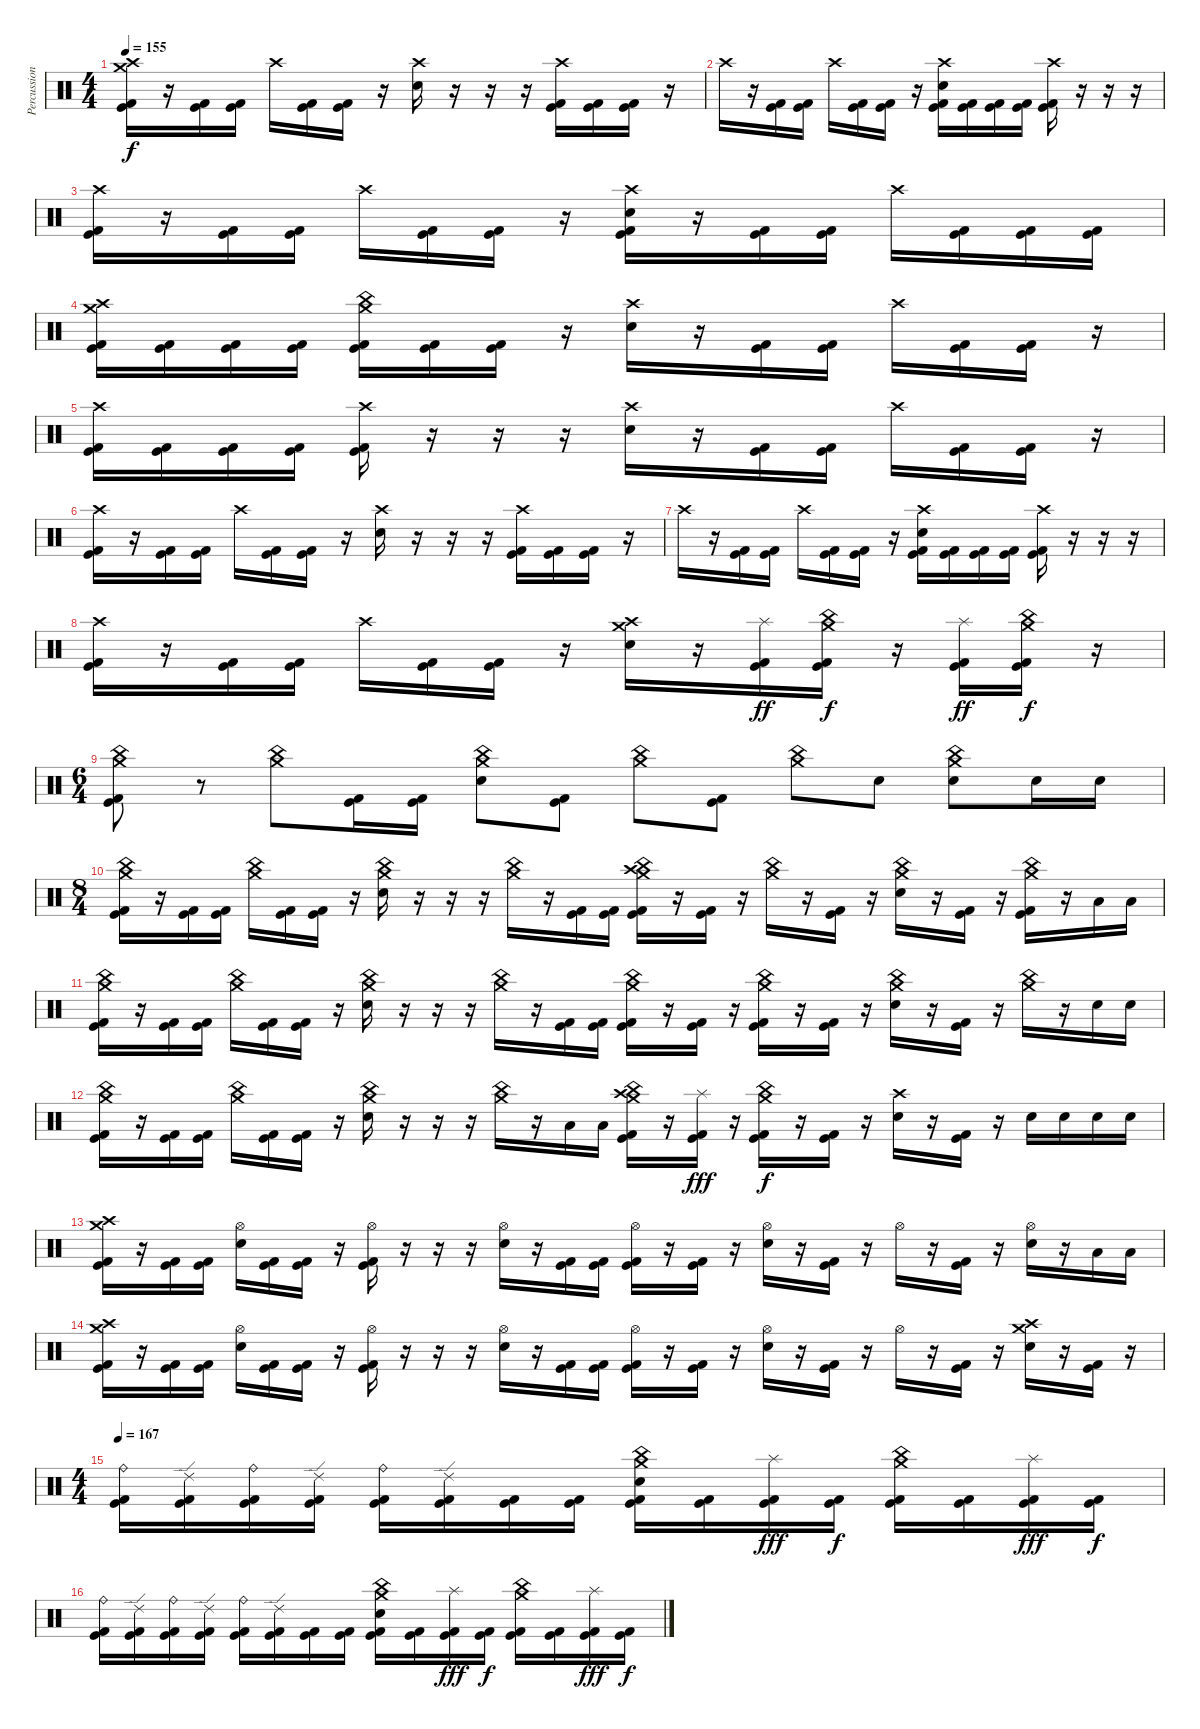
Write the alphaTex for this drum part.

\track ("Percussion" "Percussion") {instrument percussion}
\staff {score}
\articulation defaults
\ts (4 4)
\tempo 155
\clef neutral
\ks c
("Crash medium (hit)" "Crash high (hit)" "Kick (hit)" "Kick (hit) 2").16{dy f} r.16 ("Kick (hit)" "Kick (hit) 2").16 ("Kick (hit)" "Kick (hit) 2").16 "Crash high (hit)".16 ("Kick (hit)" "Kick (hit) 2").16 ("Kick (hit)" "Kick (hit) 2").16 r.16 ("Crash high (hit)" "Electric Snare (hit)").16 r.16 r.16 r.16 ("Crash high (hit)" "Kick (hit)" "Kick (hit) 2").16 ("Kick (hit)" "Kick (hit) 2").16 ("Kick (hit)" "Kick (hit) 2").16 r.16 |
"Crash high (hit)".16 r.16 ("Kick (hit)" "Kick (hit) 2").16 ("Kick (hit)" "Kick (hit) 2").16 "Crash high (hit)".16 ("Kick (hit)" "Kick (hit) 2").16 ("Kick (hit)" "Kick (hit) 2").16 r.16 ("Crash high (hit)" "Electric Snare (hit)" "Kick (hit)" "Kick (hit) 2").16 ("Kick (hit)" "Kick (hit) 2").16 ("Kick (hit)" "Kick (hit) 2").16 ("Kick (hit)" "Kick (hit) 2").16 ("Crash high (hit)" "Kick (hit)" "Kick (hit) 2").16 r.16 r.16 r.16 |
("Crash high (hit)" "Kick (hit)" "Kick (hit) 2").16 r.16 ("Kick (hit)" "Kick (hit) 2").16 ("Kick (hit)" "Kick (hit) 2").16 "Crash high (hit)".16 ("Kick (hit)" "Kick (hit) 2").16 ("Kick (hit)" "Kick (hit) 2").16 r.16 ("Crash high (hit)" "Electric Snare (hit)" "Kick (hit)" "Kick (hit) 2").16 r.16 ("Kick (hit)" "Kick (hit) 2").16 ("Kick (hit)" "Kick (hit) 2").16 "Crash high (hit)".16 ("Kick (hit)" "Kick (hit) 2").16 ("Kick (hit)" "Kick (hit) 2").16 ("Kick (hit)" "Kick (hit) 2").16 |
("Crash medium (hit)" "Crash high (hit)" "Kick (hit)" "Kick (hit) 2").16 ("Kick (hit)" "Kick (hit) 2").16 ("Kick (hit)" "Kick (hit) 2").16 ("Kick (hit)" "Kick (hit) 2").16 ("Crash medium (hit)" "China (hit)" "Kick (hit)" "Kick (hit) 2").16 ("Kick (hit)" "Kick (hit) 2").16 ("Kick (hit)" "Kick (hit) 2").16 r.16 ("Crash high (hit)" "Electric Snare (hit)").16 r.16 ("Kick (hit)" "Kick (hit) 2").16 ("Kick (hit)" "Kick (hit) 2").16 "Crash high (hit)".16 ("Kick (hit)" "Kick (hit) 2").16 ("Kick (hit)" "Kick (hit) 2").16 r.16 |
("Crash high (hit)" "Kick (hit)" "Kick (hit) 2").16 ("Kick (hit)" "Kick (hit) 2").16 ("Kick (hit)" "Kick (hit) 2").16 ("Kick (hit)" "Kick (hit) 2").16 ("Crash high (hit)" "Kick (hit)" "Kick (hit) 2").16 r.16 r.16 r.16 ("Crash high (hit)" "Electric Snare (hit)").16 r.16 ("Kick (hit)" "Kick (hit) 2").16 ("Kick (hit)" "Kick (hit) 2").16 "Crash high (hit)".16 ("Kick (hit)" "Kick (hit) 2").16 ("Kick (hit)" "Kick (hit) 2").16 r.16 |
("Crash high (hit)" "Kick (hit)" "Kick (hit) 2").16 r.16 ("Kick (hit)" "Kick (hit) 2").16 ("Kick (hit)" "Kick (hit) 2").16 "Crash high (hit)".16 ("Kick (hit)" "Kick (hit) 2").16 ("Kick (hit)" "Kick (hit) 2").16 r.16 ("Crash high (hit)" "Electric Snare (hit)").16 r.16 r.16 r.16 ("Crash high (hit)" "Kick (hit)" "Kick (hit) 2").16 ("Kick (hit)" "Kick (hit) 2").16 ("Kick (hit)" "Kick (hit) 2").16 r.16 |
"Crash high (hit)".16 r.16 ("Kick (hit)" "Kick (hit) 2").16 ("Kick (hit)" "Kick (hit) 2").16 "Crash high (hit)".16 ("Kick (hit)" "Kick (hit) 2").16 ("Kick (hit)" "Kick (hit) 2").16 r.16 ("Crash high (hit)" "Electric Snare (hit)" "Kick (hit)" "Kick (hit) 2").16 ("Kick (hit)" "Kick (hit) 2").16 ("Kick (hit)" "Kick (hit) 2").16 ("Kick (hit)" "Kick (hit) 2").16 ("Crash high (hit)" "Kick (hit)" "Kick (hit) 2").16 r.16 r.16 r.16 |
("Crash high (hit)" "Kick (hit)" "Kick (hit) 2").16 r.16 ("Kick (hit)" "Kick (hit) 2").16 ("Kick (hit)" "Kick (hit) 2").16 "Crash high (hit)".16 ("Kick (hit)" "Kick (hit) 2").16 ("Kick (hit)" "Kick (hit) 2").16 r.16 ("Crash medium (hit)" "Crash high (hit)" "Electric Snare (hit)").16 r.16 ("Splash (hit)" "Kick (hit)" "Kick (hit) 2").16{dy ff} ("Crash medium (hit)" "China (hit)" "Kick (hit)" "Kick (hit) 2").16{dy f} r.16 ("Splash (hit)" "Kick (hit)" "Kick (hit) 2").16{dy ff} ("Crash medium (hit)" "China (hit)" "Kick (hit)" "Kick (hit) 2").16{dy f} r.16 |
\ts (6 4)
("Crash medium (hit)" "China (hit)" "Kick (hit)" "Kick (hit) 2").8 r.8 ("Crash medium (hit)" "China (hit)").8 ("Kick (hit)" "Kick (hit) 2").16 ("Kick (hit)" "Kick (hit) 2").16 ("Crash medium (hit)" "China (hit)" "Electric Snare (hit)").8 ("Kick (hit)" "Kick (hit) 2").8 ("Crash medium (hit)" "China (hit)").8 ("Kick (hit)" "Kick (hit) 2").8 ("Crash medium (hit)" "China (hit)").8 "Electric Snare (hit)".8 ("Crash medium (hit)" "China (hit)" "Electric Snare (hit)").8 "Electric Snare (hit)".16 "Electric Snare (hit)".16 |
\ts (8 4)
("Crash medium (hit)" "China (hit)" "Kick (hit)" "Kick (hit) 2").16 r.16 ("Kick (hit)" "Kick (hit) 2").16 ("Kick (hit)" "Kick (hit) 2").16 ("Crash medium (hit)" "China (hit)").16 ("Kick (hit)" "Kick (hit) 2").16 ("Kick (hit)" "Kick (hit) 2").16 r.16 ("Crash medium (hit)" "China (hit)" "Electric Snare (hit)").16 r.16 r.16 r.16 ("Crash medium (hit)" "China (hit)").16 r.16 ("Kick (hit)" "Kick (hit) 2").16 ("Kick (hit)" "Kick (hit) 2").16 ("Crash medium (hit)" "China (hit)" "Crash high (hit)" "Kick (hit)" "Kick (hit) 2").16 r.16 ("Kick (hit)" "Kick (hit) 2").16 r.16 ("Crash medium (hit)" "China (hit)").16 r.16 ("Kick (hit)" "Kick (hit) 2").16 r.16 ("Crash medium (hit)" "China (hit)" "Electric Snare (hit)").16 r.16 ("Kick (hit)" "Kick (hit) 2").16 r.16 ("Crash medium (hit)" "China (hit)" "Kick (hit)" "Kick (hit) 2").16 r.16 "Low Tom (hit)".16 "Low Tom (hit)".16 |
("Crash medium (hit)" "China (hit)" "Kick (hit)" "Kick (hit) 2").16 r.16 ("Kick (hit)" "Kick (hit) 2").16 ("Kick (hit)" "Kick (hit) 2").16 ("Crash medium (hit)" "China (hit)").16 ("Kick (hit)" "Kick (hit) 2").16 ("Kick (hit)" "Kick (hit) 2").16 r.16 ("Crash medium (hit)" "China (hit)" "Electric Snare (hit)").16 r.16 r.16 r.16 ("Crash medium (hit)" "China (hit)").16 r.16 ("Kick (hit)" "Kick (hit) 2").16 ("Kick (hit)" "Kick (hit) 2").16 ("Crash medium (hit)" "China (hit)" "Kick (hit)" "Kick (hit) 2").16 r.16 ("Kick (hit)" "Kick (hit) 2").16 r.16 ("Crash medium (hit)" "China (hit)" "Kick (hit)" "Kick (hit) 2").16 r.16 ("Kick (hit)" "Kick (hit) 2").16 r.16 ("Crash medium (hit)" "China (hit)" "Electric Snare (hit)").16 r.16 ("Kick (hit)" "Kick (hit) 2").16 r.16 ("Crash medium (hit)" "China (hit)").16 r.16 "Electric Snare (hit)".16 "Electric Snare (hit)".16 |
("Crash medium (hit)" "China (hit)" "Kick (hit)" "Kick (hit) 2").16 r.16 ("Kick (hit)" "Kick (hit) 2").16 ("Kick (hit)" "Kick (hit) 2").16 ("Crash medium (hit)" "China (hit)").16 ("Kick (hit)" "Kick (hit) 2").16 ("Kick (hit)" "Kick (hit) 2").16 r.16 ("Crash medium (hit)" "China (hit)" "Electric Snare (hit)").16 r.16 r.16 r.16 ("Crash medium (hit)" "China (hit)").16 r.16 "Low Tom (hit)".16 "Low Tom (hit)".16 ("Crash medium (hit)" "China (hit)" "Crash high (hit)" "Kick (hit)" "Kick (hit) 2").16 r.16 ("Splash (hit)" "Kick (hit)" "Kick (hit) 2").16{dy fff} r.16 ("Crash medium (hit)" "China (hit)" "Kick (hit)" "Kick (hit) 2").16{dy f} r.16 ("Kick (hit)" "Kick (hit) 2").16 r.16 ("Crash high (hit)" "Electric Snare (hit)").16 r.16 ("Kick (hit)" "Kick (hit) 2").16 r.16 "Electric Snare (hit)".16 "Electric Snare (hit)".16 "Electric Snare (hit)".16 "Electric Snare (hit)".16 |
("Crash medium (hit)" "Crash high (hit)" "Kick (hit)" "Kick (hit) 2").16 r.16 ("Kick (hit)" "Kick (hit) 2").16 ("Kick (hit)" "Kick (hit) 2").16 ("Hi-Hat (open)" "Electric Snare (hit)").16 ("Kick (hit)" "Kick (hit) 2").16 ("Kick (hit)" "Kick (hit) 2").16 r.16 ("Hi-Hat (open)" "Kick (hit)" "Kick (hit) 2").16 r.16 r.16 r.16 ("Hi-Hat (open)" "Electric Snare (hit)").16 r.16 ("Kick (hit)" "Kick (hit) 2").16 ("Kick (hit)" "Kick (hit) 2").16 ("Hi-Hat (open)" "Kick (hit)" "Kick (hit) 2").16 r.16 ("Kick (hit)" "Kick (hit) 2").16 r.16 ("Hi-Hat (open)" "Electric Snare (hit)").16 r.16 ("Kick (hit)" "Kick (hit) 2").16 r.16 "Hi-Hat (open)".16 r.16 ("Kick (hit)" "Kick (hit) 2").16 r.16 ("Hi-Hat (open)" "Electric Snare (hit)").16 r.16 "Low Tom (hit)".16 "Low Tom (hit)".16 |
("Crash medium (hit)" "Crash high (hit)" "Kick (hit)" "Kick (hit) 2").16 r.16 ("Kick (hit)" "Kick (hit) 2").16 ("Kick (hit)" "Kick (hit) 2").16 ("Hi-Hat (open)" "Electric Snare (hit)").16 ("Kick (hit)" "Kick (hit) 2").16 ("Kick (hit)" "Kick (hit) 2").16 r.16 ("Hi-Hat (open)" "Kick (hit)" "Kick (hit) 2").16 r.16 r.16 r.16 ("Hi-Hat (open)" "Electric Snare (hit)").16 r.16 ("Kick (hit)" "Kick (hit) 2").16 ("Kick (hit)" "Kick (hit) 2").16 ("Hi-Hat (open)" "Kick (hit)" "Kick (hit) 2").16 r.16 ("Kick (hit)" "Kick (hit) 2").16 r.16 ("Hi-Hat (open)" "Electric Snare (hit)").16 r.16 ("Kick (hit)" "Kick (hit) 2").16 r.16 "Hi-Hat (open)".16 r.16 ("Kick (hit)" "Kick (hit) 2").16 r.16 ("Crash medium (hit)" "Crash high (hit)" "Electric Snare (hit)").16 r.16 ("Kick (hit)" "Kick (hit) 2").16 r.16 |
\ts (4 4)
\tempo 167
("Ride (bell)" "Kick (hit)" "Kick (hit) 2").16 ("Ride (edge) 2" "Kick (hit)" "Kick (hit) 2").16 ("Ride (bell)" "Kick (hit)" "Kick (hit) 2").16 ("Ride (edge) 2" "Kick (hit)" "Kick (hit) 2").16 ("Ride (bell)" "Kick (hit)" "Kick (hit) 2").16 ("Ride (edge) 2" "Kick (hit)" "Kick (hit) 2").16 ("Kick (hit)" "Kick (hit) 2").16 ("Kick (hit)" "Kick (hit) 2").16 ("Crash medium (hit)" "China (hit)" "Electric Snare (hit)" "Kick (hit)" "Kick (hit) 2").16 ("Kick (hit)" "Kick (hit) 2").16 ("Splash (hit)" "Kick (hit)" "Kick (hit) 2").16{dy fff} ("Kick (hit)" "Kick (hit) 2").16{dy f} ("Crash medium (hit)" "China (hit)" "Kick (hit)" "Kick (hit) 2").16 ("Kick (hit)" "Kick (hit) 2").16 ("Splash (hit)" "Kick (hit)" "Kick (hit) 2").16{dy fff} ("Kick (hit)" "Kick (hit) 2").16{dy f} |
("Ride (bell)" "Kick (hit)" "Kick (hit) 2").16 ("Ride (edge) 2" "Kick (hit)" "Kick (hit) 2").16 ("Ride (bell)" "Kick (hit)" "Kick (hit) 2").16 ("Ride (edge) 2" "Kick (hit)" "Kick (hit) 2").16 ("Ride (bell)" "Kick (hit)" "Kick (hit) 2").16 ("Ride (edge) 2" "Kick (hit)" "Kick (hit) 2").16 ("Kick (hit)" "Kick (hit) 2").16 ("Kick (hit)" "Kick (hit) 2").16 ("Crash medium (hit)" "China (hit)" "Electric Snare (hit)" "Kick (hit)" "Kick (hit) 2").16 ("Kick (hit)" "Kick (hit) 2").16 ("Splash (hit)" "Kick (hit)" "Kick (hit) 2").16{dy fff} ("Kick (hit)" "Kick (hit) 2").16{dy f} ("Crash medium (hit)" "China (hit)" "Kick (hit)" "Kick (hit) 2").16 ("Kick (hit)" "Kick (hit) 2").16 ("Splash (hit)" "Kick (hit)" "Kick (hit) 2").16{dy fff} ("Kick (hit)" "Kick (hit) 2").16{dy f}
